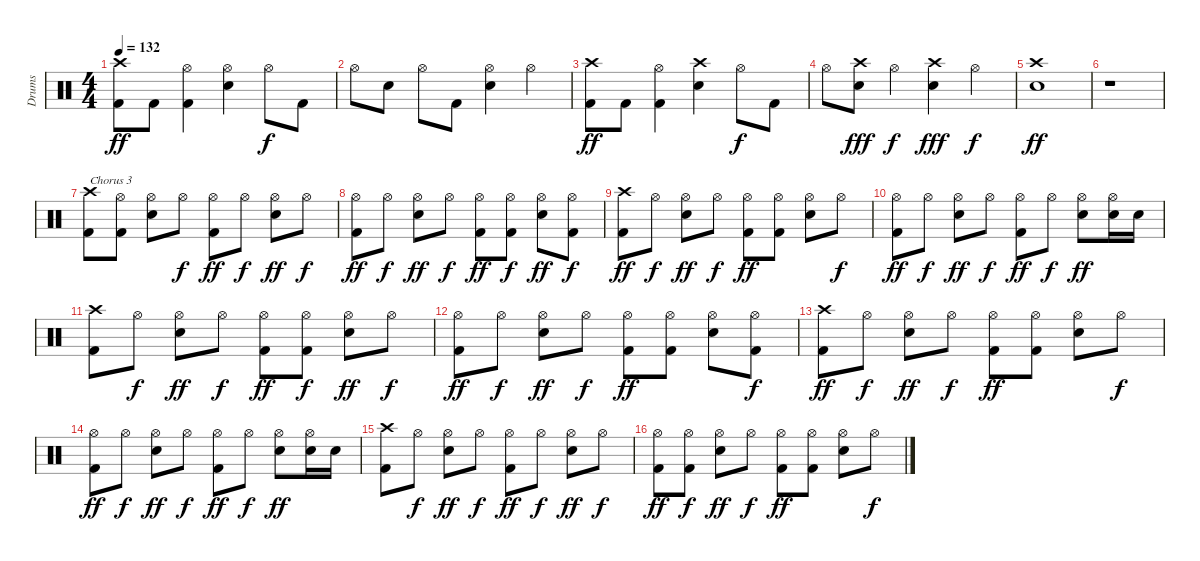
\track ("Drums" "Drums") {instrument percussion}
\staff {score}
\articulation defaults
\ts (4 4)
\tempo 132
\clef neutral
\ks c
("Crash high (hit)" "Kick (hit) 2").8{dy ff} "Kick (hit) 2".8 ("Hi-Hat (open)" "Kick (hit) 2").4 ("Hi-Hat (open)" "Snare (hit) 2").4 "Hi-Hat (open)".8{dy f} "Kick (hit) 2".8 |
"Hi-Hat (open)".8 "Snare (hit) 2".8 "Hi-Hat (open)".8 "Kick (hit) 2".8 ("Hi-Hat (open)" "Snare (hit) 2").4 "Hi-Hat (open)".4 |
("Crash high (hit)" "Kick (hit) 2").8{dy ff} "Kick (hit) 2".8 ("Hi-Hat (open)" "Kick (hit) 2").4 ("Crash high (hit)" "Snare (hit) 2").4 "Hi-Hat (open)".8{dy f} "Kick (hit) 2".8 |
"Hi-Hat (open)".8 ("Crash high (hit)" "Snare (hit) 2").8{dy fff} "Hi-Hat (open)".4{dy f} ("Crash high (hit)" "Snare (hit) 2").4{dy fff} "Hi-Hat (open)".4{dy f} |
("Crash high (hit)" "Snare (hit) 2").1{dy ff} |
r.1 |
("Crash high (hit)" "Kick (hit) 2").8{txt "Chorus 3"} ("Hi-Hat (open)" "Kick (hit) 2").8 ("Hi-Hat (open)" "Snare (hit) 2").8 "Hi-Hat (open)".8{dy f} ("Hi-Hat (open)" "Kick (hit) 2").8{dy ff} "Hi-Hat (open)".8{dy f} ("Hi-Hat (open)" "Snare (hit) 2").8{dy ff} "Hi-Hat (open)".8{dy f} |
("Hi-Hat (open)" "Kick (hit) 2").8{dy ff} "Hi-Hat (open)".8{dy f} ("Hi-Hat (open)" "Snare (hit) 2").8{dy ff} "Hi-Hat (open)".8{dy f} ("Hi-Hat (open)" "Kick (hit) 2").8{dy ff} ("Hi-Hat (open)" "Kick (hit) 2").8{dy f} ("Hi-Hat (open)" "Snare (hit) 2").8{dy ff} ("Hi-Hat (open)" "Kick (hit) 2").8{dy f} |
("Crash high (hit)" "Kick (hit) 2").8{dy ff} "Hi-Hat (open)".8{dy f} ("Hi-Hat (open)" "Snare (hit) 2").8{dy ff} "Hi-Hat (open)".8{dy f} ("Hi-Hat (open)" "Kick (hit) 2").8{dy ff} ("Hi-Hat (open)" "Kick (hit) 2").8 ("Hi-Hat (open)" "Snare (hit) 2").8 "Hi-Hat (open)".8{dy f} |
("Hi-Hat (open)" "Kick (hit) 2").8{dy ff} "Hi-Hat (open)".8{dy f} ("Hi-Hat (open)" "Snare (hit) 2").8{dy ff} "Hi-Hat (open)".8{dy f} ("Hi-Hat (open)" "Kick (hit) 2").8{dy ff} "Hi-Hat (open)".8{dy f} ("Hi-Hat (open)" "Snare (hit) 2").8{dy ff} ("Hi-Hat (open)" "Snare (hit) 2").16 "Snare (hit) 2".16 |
("Crash high (hit)" "Kick (hit) 2").8 "Hi-Hat (open)".8{dy f} ("Hi-Hat (open)" "Snare (hit) 2").8{dy ff} "Hi-Hat (open)".8{dy f} ("Hi-Hat (open)" "Kick (hit) 2").8{dy ff} ("Hi-Hat (open)" "Kick (hit) 2").8{dy f} ("Hi-Hat (open)" "Snare (hit) 2").8{dy ff} "Hi-Hat (open)".8{dy f} |
("Hi-Hat (open)" "Kick (hit) 2").8{dy ff} "Hi-Hat (open)".8{dy f} ("Hi-Hat (open)" "Snare (hit) 2").8{dy ff} "Hi-Hat (open)".8{dy f} ("Hi-Hat (open)" "Kick (hit) 2").8{dy ff} ("Hi-Hat (open)" "Kick (hit) 2").8 ("Hi-Hat (open)" "Snare (hit) 2").8 ("Hi-Hat (open)" "Kick (hit) 2").8{dy f} |
("Crash high (hit)" "Kick (hit) 2").8{dy ff} "Hi-Hat (open)".8{dy f} ("Hi-Hat (open)" "Snare (hit) 2").8{dy ff} "Hi-Hat (open)".8{dy f} ("Hi-Hat (open)" "Kick (hit) 2").8{dy ff} ("Hi-Hat (open)" "Kick (hit) 2").8 ("Hi-Hat (open)" "Snare (hit) 2").8 "Hi-Hat (open)".8{dy f} |
("Hi-Hat (open)" "Kick (hit) 2").8{dy ff} "Hi-Hat (open)".8{dy f} ("Hi-Hat (open)" "Snare (hit) 2").8{dy ff} "Hi-Hat (open)".8{dy f} ("Hi-Hat (open)" "Kick (hit) 2").8{dy ff} "Hi-Hat (open)".8{dy f} ("Hi-Hat (open)" "Snare (hit) 2").8{dy ff} ("Hi-Hat (open)" "Snare (hit) 2").16 "Snare (hit) 2".16 |
("Crash high (hit)" "Kick (hit) 2").8 "Hi-Hat (open)".8{dy f} ("Hi-Hat (open)" "Snare (hit) 2").8{dy ff} "Hi-Hat (open)".8{dy f} ("Hi-Hat (open)" "Kick (hit) 2").8{dy ff} "Hi-Hat (open)".8{dy f} ("Hi-Hat (open)" "Snare (hit) 2").8{dy ff} "Hi-Hat (open)".8{dy f} |
("Hi-Hat (open)" "Kick (hit) 2").8{dy ff} ("Hi-Hat (open)" "Kick (hit) 2").8{dy f} ("Hi-Hat (open)" "Snare (hit) 2").8{dy ff} "Hi-Hat (open)".8{dy f} ("Hi-Hat (open)" "Kick (hit) 2").8{dy ff} ("Hi-Hat (open)" "Kick (hit) 2").8 ("Hi-Hat (open)" "Snare (hit) 2").8 "Hi-Hat (open)".8{dy f}
